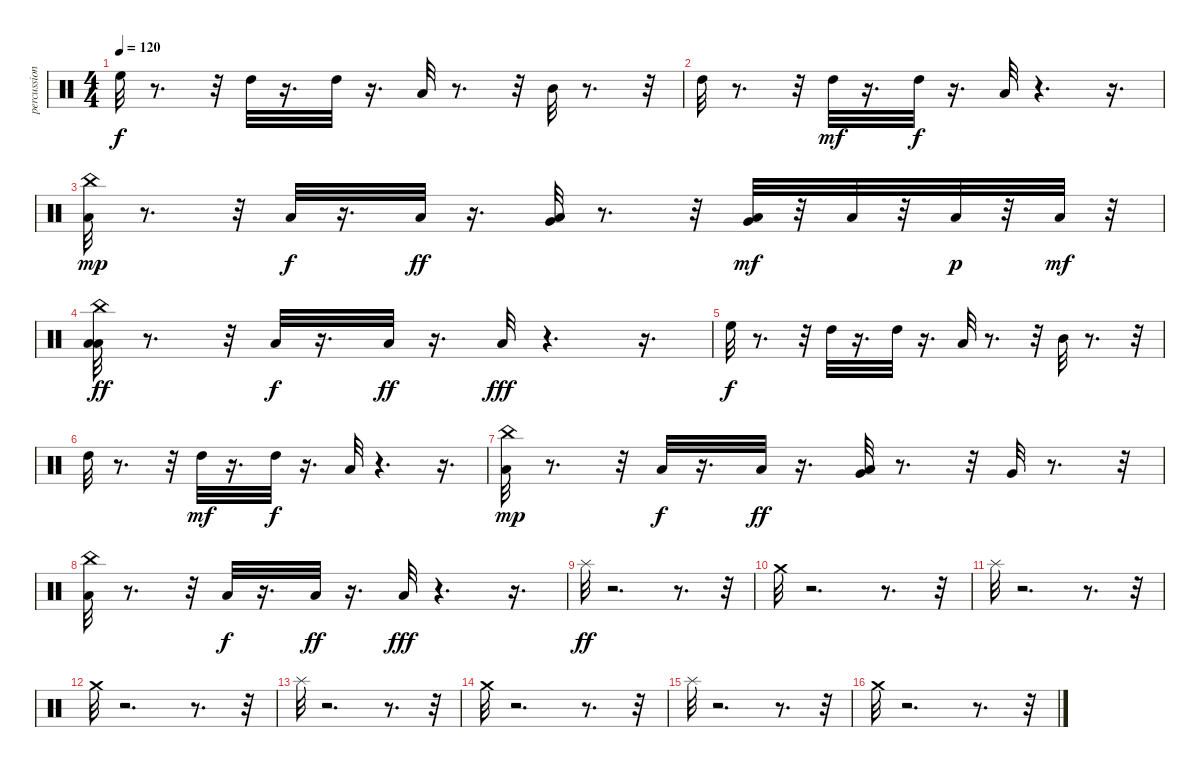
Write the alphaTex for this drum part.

\track ("percussion" "percussion") {instrument percussion}
\staff {score}
\articulation defaults
\ts (4 4)
\tempo 120
\clef neutral
\ks c "High Floor Tom (hit)".32{dy f}
r.8{d} r.32 "High Tom (hit)".32 r.16{d} "High Tom (hit)".32 r.16{d} "Low Tom (hit)".32 r.8{d} r.32 "Mid Tom (hit)".32 r.8{d} r.32 |
"High Tom (hit)".32 r.8{d} r.32 "High Tom (hit)".32{dy mf} r.16{d} "High Tom (hit)".32{dy f} r.16{d} "Low Tom (hit)".32 r.4{d} r.16{d} |
("Low Floor Tom (hit)" "China (hit)").32{dy mp} r.8{d} r.32 "Low Floor Tom (hit)".32{dy f} r.16{d} "Low Floor Tom (hit)".32{dy ff} r.16{d} ("Low Floor Tom (hit)" "Very Low Tom (hit)").32 r.8{d} r.32 ("Very Low Tom (hit)" "Low Floor Tom (hit)").32{dy mf} r.32 "Low Floor Tom (hit)".32 r.32 "Low Floor Tom (hit)".32{dy p} r.32 "Low Floor Tom (hit)".32{dy mf} r.32 |
("Low Floor Tom (hit)" "China (hit)" "Low Floor Tom (hit)").32{dy ff} r.8{d} r.32 "Low Floor Tom (hit)".32{dy f} r.16{d} "Low Floor Tom (hit)".32{dy ff} r.16{d} "Low Floor Tom (hit)".32{dy fff} r.4{d} r.16{d} |
"High Floor Tom (hit)".32{dy f} r.8{d} r.32 "High Tom (hit)".32 r.16{d} "High Tom (hit)".32 r.16{d} "Low Tom (hit)".32 r.8{d} r.32 "Mid Tom (hit)".32 r.8{d} r.32 |
"High Tom (hit)".32 r.8{d} r.32 "High Tom (hit)".32{dy mf} r.16{d} "High Tom (hit)".32{dy f} r.16{d} "Low Tom (hit)".32 r.4{d} r.16{d} |
("Low Floor Tom (hit)" "China (hit)").32{dy mp} r.8{d} r.32 "Low Floor Tom (hit)".32{dy f} r.16{d} "Low Floor Tom (hit)".32{dy ff} r.16{d} ("Low Floor Tom (hit)" "Very Low Tom (hit)").32 r.8{d} r.32 "Very Low Tom (hit)".32 r.8{d} r.32 |
("Low Floor Tom (hit)" "China (hit)").32 r.8{d} r.32 "Low Floor Tom (hit)".32{dy f} r.16{d} "Low Floor Tom (hit)".32{dy ff} r.16{d} "Low Floor Tom (hit)".32{dy fff} r.4{d} r.16{d} |
"Splash (hit)".32{dy ff} r.2{d} r.8{d} r.32 |
"Crash medium (hit)".32 r.2{d} r.8{d} r.32 |
"Splash (hit)".32 r.2{d} r.8{d} r.32 |
"Crash medium (hit)".32 r.2{d} r.8{d} r.32 |
"Splash (hit)".32 r.2{d} r.8{d} r.32 |
"Crash medium (hit)".32 r.2{d} r.8{d} r.32 |
"Splash (hit)".32 r.2{d} r.8{d} r.32 |
"Crash medium (hit)".32 r.2{d} r.8{d} r.32
